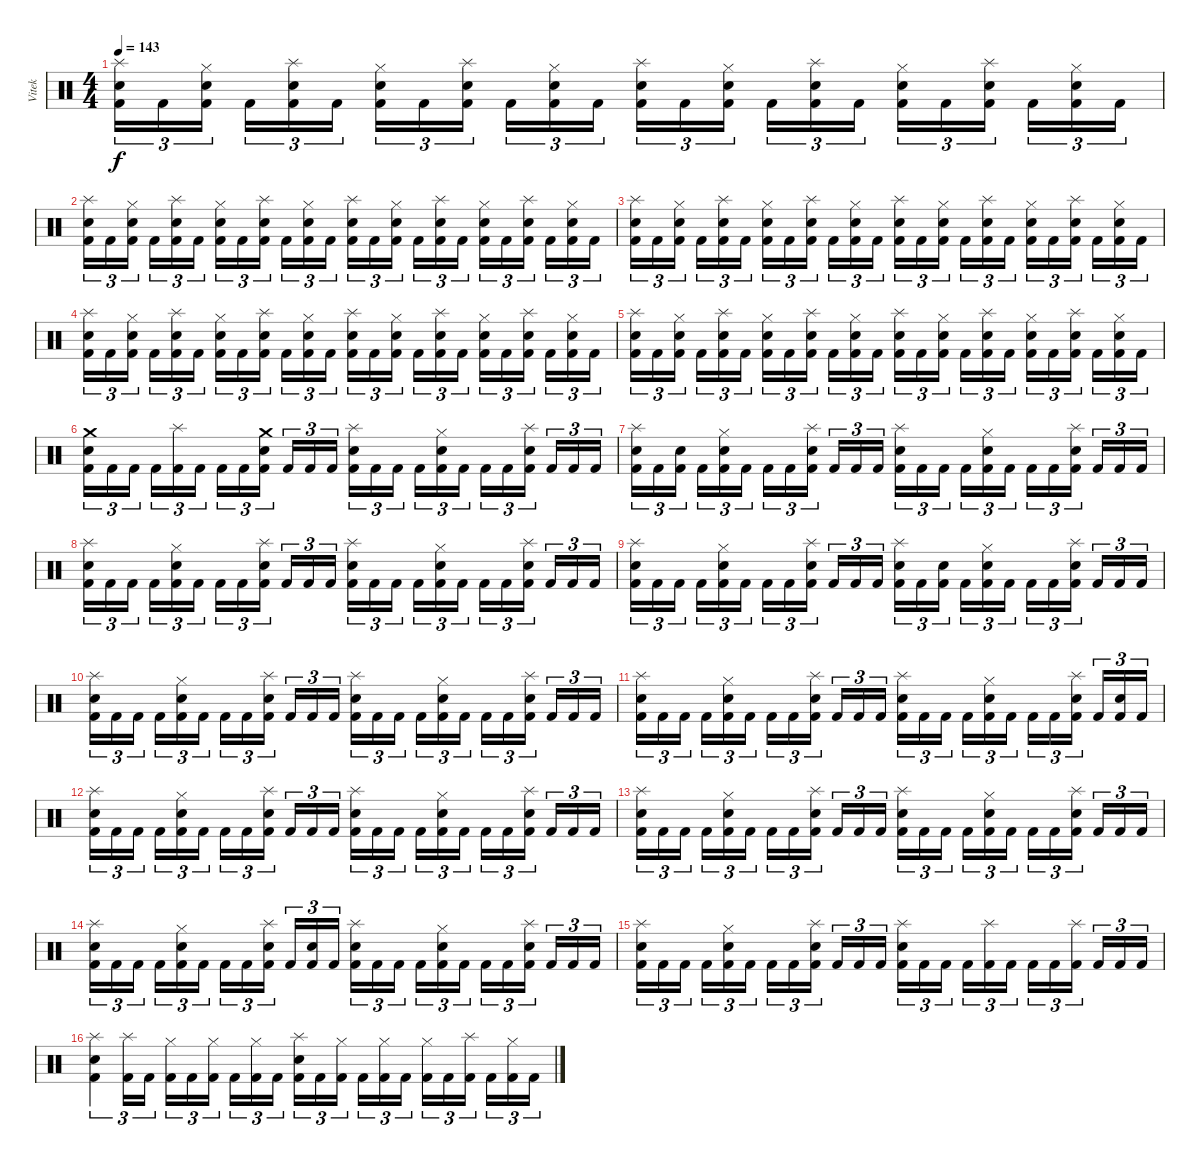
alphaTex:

\track ("Vitek" "Vitek") {instrument percussion}
\staff {score}
\articulation defaults
\ts (4 4)
\tempo 143
\clef neutral
\ks c
("Splash (hit)" "Electric Snare (hit)" "Kick (hit) 2").16{tu (3 2) dy f} "Kick (hit) 2".16{tu (3 2)} ("Hi-Hat (closed)" "Electric Snare (hit)" "Kick (hit) 2").16{tu (3 2) beam splitsecondary} "Kick (hit) 2".16{tu (3 2)} ("Splash (hit)" "Electric Snare (hit)" "Kick (hit) 2").16{tu (3 2)} "Kick (hit) 2".16{tu (3 2)} ("Hi-Hat (closed)" "Electric Snare (hit)" "Kick (hit) 2").16{tu (3 2)} "Kick (hit) 2".16{tu (3 2)} ("Splash (hit)" "Electric Snare (hit)" "Kick (hit) 2").16{tu (3 2) beam splitsecondary} "Kick (hit) 2".16{tu (3 2)} ("Hi-Hat (closed)" "Electric Snare (hit)" "Kick (hit) 2").16{tu (3 2)} "Kick (hit) 2".16{tu (3 2)} ("Splash (hit)" "Electric Snare (hit)" "Kick (hit) 2").16{tu (3 2)} "Kick (hit) 2".16{tu (3 2)} ("Hi-Hat (closed)" "Electric Snare (hit)" "Kick (hit) 2").16{tu (3 2) beam splitsecondary} "Kick (hit) 2".16{tu (3 2)} ("Splash (hit)" "Electric Snare (hit)" "Kick (hit) 2").16{tu (3 2)} "Kick (hit) 2".16{tu (3 2)} ("Hi-Hat (closed)" "Electric Snare (hit)" "Kick (hit) 2").16{tu (3 2)} "Kick (hit) 2".16{tu (3 2)} ("Splash (hit)" "Electric Snare (hit)" "Kick (hit) 2").16{tu (3 2) beam splitsecondary} "Kick (hit) 2".16{tu (3 2)} ("Hi-Hat (closed)" "Electric Snare (hit)" "Kick (hit) 2").16{tu (3 2)} "Kick (hit) 2".16{tu (3 2)} |
("Splash (hit)" "Electric Snare (hit)" "Kick (hit) 2").16{tu (3 2)} "Kick (hit) 2".16{tu (3 2)} ("Hi-Hat (closed)" "Electric Snare (hit)" "Kick (hit) 2").16{tu (3 2) beam splitsecondary} "Kick (hit) 2".16{tu (3 2)} ("Splash (hit)" "Electric Snare (hit)" "Kick (hit) 2").16{tu (3 2)} "Kick (hit) 2".16{tu (3 2)} ("Hi-Hat (closed)" "Electric Snare (hit)" "Kick (hit) 2").16{tu (3 2)} "Kick (hit) 2".16{tu (3 2)} ("Splash (hit)" "Electric Snare (hit)" "Kick (hit) 2").16{tu (3 2) beam splitsecondary} "Kick (hit) 2".16{tu (3 2)} ("Hi-Hat (closed)" "Electric Snare (hit)" "Kick (hit) 2").16{tu (3 2)} "Kick (hit) 2".16{tu (3 2)} ("Splash (hit)" "Electric Snare (hit)" "Kick (hit) 2").16{tu (3 2)} "Kick (hit) 2".16{tu (3 2)} ("Hi-Hat (closed)" "Electric Snare (hit)" "Kick (hit) 2").16{tu (3 2) beam splitsecondary} "Kick (hit) 2".16{tu (3 2)} ("Splash (hit)" "Electric Snare (hit)" "Kick (hit) 2").16{tu (3 2)} "Kick (hit) 2".16{tu (3 2)} ("Hi-Hat (closed)" "Electric Snare (hit)" "Kick (hit) 2").16{tu (3 2)} "Kick (hit) 2".16{tu (3 2)} ("Splash (hit)" "Electric Snare (hit)" "Kick (hit) 2").16{tu (3 2) beam splitsecondary} "Kick (hit) 2".16{tu (3 2)} ("Hi-Hat (closed)" "Electric Snare (hit)" "Kick (hit) 2").16{tu (3 2)} "Kick (hit) 2".16{tu (3 2)} |
("Splash (hit)" "Electric Snare (hit)" "Kick (hit) 2").16{tu (3 2)} "Kick (hit) 2".16{tu (3 2)} ("Hi-Hat (closed)" "Electric Snare (hit)" "Kick (hit) 2").16{tu (3 2) beam splitsecondary} "Kick (hit) 2".16{tu (3 2)} ("Splash (hit)" "Electric Snare (hit)" "Kick (hit) 2").16{tu (3 2)} "Kick (hit) 2".16{tu (3 2)} ("Hi-Hat (closed)" "Electric Snare (hit)" "Kick (hit) 2").16{tu (3 2)} "Kick (hit) 2".16{tu (3 2)} ("Splash (hit)" "Electric Snare (hit)" "Kick (hit) 2").16{tu (3 2) beam splitsecondary} "Kick (hit) 2".16{tu (3 2)} ("Hi-Hat (closed)" "Electric Snare (hit)" "Kick (hit) 2").16{tu (3 2)} "Kick (hit) 2".16{tu (3 2)} ("Splash (hit)" "Electric Snare (hit)" "Kick (hit) 2").16{tu (3 2)} "Kick (hit) 2".16{tu (3 2)} ("Hi-Hat (closed)" "Electric Snare (hit)" "Kick (hit) 2").16{tu (3 2) beam splitsecondary} "Kick (hit) 2".16{tu (3 2)} ("Splash (hit)" "Electric Snare (hit)" "Kick (hit) 2").16{tu (3 2)} "Kick (hit) 2".16{tu (3 2)} ("Hi-Hat (closed)" "Electric Snare (hit)" "Kick (hit) 2").16{tu (3 2)} "Kick (hit) 2".16{tu (3 2)} ("Splash (hit)" "Electric Snare (hit)" "Kick (hit) 2").16{tu (3 2) beam splitsecondary} "Kick (hit) 2".16{tu (3 2)} ("Hi-Hat (closed)" "Electric Snare (hit)" "Kick (hit) 2").16{tu (3 2)} "Kick (hit) 2".16{tu (3 2)} |
("Splash (hit)" "Electric Snare (hit)" "Kick (hit) 2").16{tu (3 2)} "Kick (hit) 2".16{tu (3 2)} ("Hi-Hat (closed)" "Electric Snare (hit)" "Kick (hit) 2").16{tu (3 2) beam splitsecondary} "Kick (hit) 2".16{tu (3 2)} ("Splash (hit)" "Electric Snare (hit)" "Kick (hit) 2").16{tu (3 2)} "Kick (hit) 2".16{tu (3 2)} ("Hi-Hat (closed)" "Electric Snare (hit)" "Kick (hit) 2").16{tu (3 2)} "Kick (hit) 2".16{tu (3 2)} ("Splash (hit)" "Electric Snare (hit)" "Kick (hit) 2").16{tu (3 2) beam splitsecondary} "Kick (hit) 2".16{tu (3 2)} ("Hi-Hat (closed)" "Electric Snare (hit)" "Kick (hit) 2").16{tu (3 2)} "Kick (hit) 2".16{tu (3 2)} ("Splash (hit)" "Electric Snare (hit)" "Kick (hit) 2").16{tu (3 2)} "Kick (hit) 2".16{tu (3 2)} ("Hi-Hat (closed)" "Electric Snare (hit)" "Kick (hit) 2").16{tu (3 2) beam splitsecondary} "Kick (hit) 2".16{tu (3 2)} ("Splash (hit)" "Electric Snare (hit)" "Kick (hit) 2").16{tu (3 2)} "Kick (hit) 2".16{tu (3 2)} ("Hi-Hat (closed)" "Electric Snare (hit)" "Kick (hit) 2").16{tu (3 2)} "Kick (hit) 2".16{tu (3 2)} ("Splash (hit)" "Electric Snare (hit)" "Kick (hit) 2").16{tu (3 2) beam splitsecondary} "Kick (hit) 2".16{tu (3 2)} ("Hi-Hat (closed)" "Electric Snare (hit)" "Kick (hit) 2").16{tu (3 2)} "Kick (hit) 2".16{tu (3 2)} |
("Splash (hit)" "Electric Snare (hit)" "Kick (hit) 2").16{tu (3 2)} "Kick (hit) 2".16{tu (3 2)} ("Hi-Hat (closed)" "Electric Snare (hit)" "Kick (hit) 2").16{tu (3 2) beam splitsecondary} "Kick (hit) 2".16{tu (3 2)} ("Splash (hit)" "Electric Snare (hit)" "Kick (hit) 2").16{tu (3 2)} "Kick (hit) 2".16{tu (3 2)} ("Hi-Hat (closed)" "Electric Snare (hit)" "Kick (hit) 2").16{tu (3 2)} "Kick (hit) 2".16{tu (3 2)} ("Splash (hit)" "Electric Snare (hit)" "Kick (hit) 2").16{tu (3 2) beam splitsecondary} "Kick (hit) 2".16{tu (3 2)} ("Hi-Hat (closed)" "Electric Snare (hit)" "Kick (hit) 2").16{tu (3 2)} "Kick (hit) 2".16{tu (3 2)} ("Splash (hit)" "Electric Snare (hit)" "Kick (hit) 2").16{tu (3 2)} "Kick (hit) 2".16{tu (3 2)} ("Hi-Hat (closed)" "Electric Snare (hit)" "Kick (hit) 2").16{tu (3 2) beam splitsecondary} "Kick (hit) 2".16{tu (3 2)} ("Splash (hit)" "Electric Snare (hit)" "Kick (hit) 2").16{tu (3 2)} "Kick (hit) 2".16{tu (3 2)} ("Hi-Hat (closed)" "Electric Snare (hit)" "Kick (hit) 2").16{tu (3 2)} "Kick (hit) 2".16{tu (3 2)} ("Splash (hit)" "Electric Snare (hit)" "Kick (hit) 2").16{tu (3 2) beam splitsecondary} "Kick (hit) 2".16{tu (3 2)} ("Hi-Hat (closed)" "Electric Snare (hit)" "Kick (hit) 2").16{tu (3 2)} "Kick (hit) 2".16{tu (3 2)} |
("Crash medium (hit)" "Electric Snare (hit)" "Kick (hit) 2").16{tu (3 2)} "Kick (hit) 2".16{tu (3 2)} "Kick (hit) 2".16{tu (3 2) beam splitsecondary} "Kick (hit) 2".16{tu (3 2)} ("Splash (hit)" "Kick (hit) 2").16{tu (3 2)} "Kick (hit) 2".16{tu (3 2)} "Kick (hit) 2".16{tu (3 2)} "Kick (hit) 2".16{tu (3 2)} ("Crash medium (hit)" "Electric Snare (hit)" "Kick (hit) 2").16{tu (3 2) beam splitsecondary} "Kick (hit) 2".16{tu (3 2)} "Kick (hit) 2".16{tu (3 2)} "Kick (hit) 2".16{tu (3 2)} ("Splash (hit)" "Electric Snare (hit)" "Kick (hit) 2").16{tu (3 2)} "Kick (hit) 2".16{tu (3 2)} "Kick (hit) 2".16{tu (3 2) beam splitsecondary} "Kick (hit) 2".16{tu (3 2)} ("Hi-Hat (closed)" "Electric Snare (hit)" "Kick (hit) 2").16{tu (3 2)} "Kick (hit) 2".16{tu (3 2)} "Kick (hit) 2".16{tu (3 2)} "Kick (hit) 2".16{tu (3 2)} ("Splash (hit)" "Electric Snare (hit)" "Kick (hit) 2").16{tu (3 2) beam splitsecondary} "Kick (hit) 2".16{tu (3 2)} "Kick (hit) 2".16{tu (3 2)} "Kick (hit) 2".16{tu (3 2)} |
("Splash (hit)" "Electric Snare (hit)" "Kick (hit) 2").16{tu (3 2)} "Kick (hit) 2".16{tu (3 2)} ("Electric Snare (hit)" "Kick (hit) 2").16{tu (3 2) beam splitsecondary} "Kick (hit) 2".16{tu (3 2)} ("Hi-Hat (closed)" "Electric Snare (hit)" "Kick (hit) 2").16{tu (3 2)} "Kick (hit) 2".16{tu (3 2)} "Kick (hit) 2".16{tu (3 2)} "Kick (hit) 2".16{tu (3 2)} ("Splash (hit)" "Electric Snare (hit)" "Kick (hit) 2").16{tu (3 2) beam splitsecondary} "Kick (hit) 2".16{tu (3 2)} "Kick (hit) 2".16{tu (3 2)} "Kick (hit) 2".16{tu (3 2)} ("Splash (hit)" "Electric Snare (hit)" "Kick (hit) 2").16{tu (3 2)} "Kick (hit) 2".16{tu (3 2)} "Kick (hit) 2".16{tu (3 2) beam splitsecondary} "Kick (hit) 2".16{tu (3 2)} ("Hi-Hat (closed)" "Electric Snare (hit)" "Kick (hit) 2").16{tu (3 2)} "Kick (hit) 2".16{tu (3 2)} "Kick (hit) 2".16{tu (3 2)} "Kick (hit) 2".16{tu (3 2)} ("Splash (hit)" "Electric Snare (hit)" "Kick (hit) 2").16{tu (3 2) beam splitsecondary} "Kick (hit) 2".16{tu (3 2)} "Kick (hit) 2".16{tu (3 2)} "Kick (hit) 2".16{tu (3 2)} |
("Splash (hit)" "Electric Snare (hit)" "Kick (hit) 2").16{tu (3 2)} "Kick (hit) 2".16{tu (3 2)} "Kick (hit) 2".16{tu (3 2) beam splitsecondary} "Kick (hit) 2".16{tu (3 2)} ("Hi-Hat (closed)" "Electric Snare (hit)" "Kick (hit) 2").16{tu (3 2)} "Kick (hit) 2".16{tu (3 2)} "Kick (hit) 2".16{tu (3 2)} "Kick (hit) 2".16{tu (3 2)} ("Splash (hit)" "Electric Snare (hit)" "Kick (hit) 2").16{tu (3 2) beam splitsecondary} "Kick (hit) 2".16{tu (3 2)} "Kick (hit) 2".16{tu (3 2)} "Kick (hit) 2".16{tu (3 2)} ("Splash (hit)" "Electric Snare (hit)" "Kick (hit) 2").16{tu (3 2)} "Kick (hit) 2".16{tu (3 2)} "Kick (hit) 2".16{tu (3 2) beam splitsecondary} "Kick (hit) 2".16{tu (3 2)} ("Hi-Hat (closed)" "Electric Snare (hit)" "Kick (hit) 2").16{tu (3 2)} "Kick (hit) 2".16{tu (3 2)} "Kick (hit) 2".16{tu (3 2)} "Kick (hit) 2".16{tu (3 2)} ("Splash (hit)" "Electric Snare (hit)" "Kick (hit) 2").16{tu (3 2) beam splitsecondary} "Kick (hit) 2".16{tu (3 2)} "Kick (hit) 2".16{tu (3 2)} "Kick (hit) 2".16{tu (3 2)} |
("Splash (hit)" "Electric Snare (hit)" "Kick (hit) 2").16{tu (3 2)} "Kick (hit) 2".16{tu (3 2)} "Kick (hit) 2".16{tu (3 2) beam splitsecondary} "Kick (hit) 2".16{tu (3 2)} ("Hi-Hat (closed)" "Electric Snare (hit)" "Kick (hit) 2").16{tu (3 2)} "Kick (hit) 2".16{tu (3 2)} "Kick (hit) 2".16{tu (3 2)} "Kick (hit) 2".16{tu (3 2)} ("Splash (hit)" "Electric Snare (hit)" "Kick (hit) 2").16{tu (3 2) beam splitsecondary} "Kick (hit) 2".16{tu (3 2)} "Kick (hit) 2".16{tu (3 2)} "Kick (hit) 2".16{tu (3 2)} ("Splash (hit)" "Electric Snare (hit)" "Kick (hit) 2").16{tu (3 2)} "Kick (hit) 2".16{tu (3 2)} ("Electric Snare (hit)" "Kick (hit) 2").16{tu (3 2) beam splitsecondary} "Kick (hit) 2".16{tu (3 2)} ("Hi-Hat (closed)" "Electric Snare (hit)" "Kick (hit) 2").16{tu (3 2)} "Kick (hit) 2".16{tu (3 2)} "Kick (hit) 2".16{tu (3 2)} "Kick (hit) 2".16{tu (3 2)} ("Splash (hit)" "Electric Snare (hit)" "Kick (hit) 2").16{tu (3 2) beam splitsecondary} "Kick (hit) 2".16{tu (3 2)} "Kick (hit) 2".16{tu (3 2)} "Kick (hit) 2".16{tu (3 2)} |
("Splash (hit)" "Electric Snare (hit)" "Kick (hit) 2").16{tu (3 2)} "Kick (hit) 2".16{tu (3 2)} "Kick (hit) 2".16{tu (3 2) beam splitsecondary} "Kick (hit) 2".16{tu (3 2)} ("Hi-Hat (closed)" "Electric Snare (hit)" "Kick (hit) 2").16{tu (3 2)} "Kick (hit) 2".16{tu (3 2)} "Kick (hit) 2".16{tu (3 2)} "Kick (hit) 2".16{tu (3 2)} ("Splash (hit)" "Electric Snare (hit)" "Kick (hit) 2").16{tu (3 2) beam splitsecondary} "Kick (hit) 2".16{tu (3 2)} "Kick (hit) 2".16{tu (3 2)} "Kick (hit) 2".16{tu (3 2)} ("Splash (hit)" "Electric Snare (hit)" "Kick (hit) 2").16{tu (3 2)} "Kick (hit) 2".16{tu (3 2)} "Kick (hit) 2".16{tu (3 2) beam splitsecondary} "Kick (hit) 2".16{tu (3 2)} ("Hi-Hat (closed)" "Electric Snare (hit)" "Kick (hit) 2").16{tu (3 2)} "Kick (hit) 2".16{tu (3 2)} "Kick (hit) 2".16{tu (3 2)} "Kick (hit) 2".16{tu (3 2)} ("Splash (hit)" "Electric Snare (hit)" "Kick (hit) 2").16{tu (3 2) beam splitsecondary} "Kick (hit) 2".16{tu (3 2)} "Kick (hit) 2".16{tu (3 2)} "Kick (hit) 2".16{tu (3 2)} |
("Splash (hit)" "Electric Snare (hit)" "Kick (hit) 2").16{tu (3 2)} "Kick (hit) 2".16{tu (3 2)} "Kick (hit) 2".16{tu (3 2) beam splitsecondary} "Kick (hit) 2".16{tu (3 2)} ("Hi-Hat (closed)" "Electric Snare (hit)" "Kick (hit) 2").16{tu (3 2)} "Kick (hit) 2".16{tu (3 2)} "Kick (hit) 2".16{tu (3 2)} "Kick (hit) 2".16{tu (3 2)} ("Splash (hit)" "Electric Snare (hit)" "Kick (hit) 2").16{tu (3 2) beam splitsecondary} "Kick (hit) 2".16{tu (3 2)} "Kick (hit) 2".16{tu (3 2)} "Kick (hit) 2".16{tu (3 2)} ("Splash (hit)" "Electric Snare (hit)" "Kick (hit) 2").16{tu (3 2)} "Kick (hit) 2".16{tu (3 2)} "Kick (hit) 2".16{tu (3 2) beam splitsecondary} "Kick (hit) 2".16{tu (3 2)} ("Hi-Hat (closed)" "Electric Snare (hit)" "Kick (hit) 2").16{tu (3 2)} "Kick (hit) 2".16{tu (3 2)} "Kick (hit) 2".16{tu (3 2)} "Kick (hit) 2".16{tu (3 2)} ("Splash (hit)" "Electric Snare (hit)" "Kick (hit) 2").16{tu (3 2) beam splitsecondary} "Kick (hit) 2".16{tu (3 2)} ("Electric Snare (hit)" "Kick (hit) 2").16{tu (3 2)} "Kick (hit) 2".16{tu (3 2)} |
("Splash (hit)" "Electric Snare (hit)" "Kick (hit) 2").16{tu (3 2)} "Kick (hit) 2".16{tu (3 2)} "Kick (hit) 2".16{tu (3 2) beam splitsecondary} "Kick (hit) 2".16{tu (3 2)} ("Hi-Hat (closed)" "Electric Snare (hit)" "Kick (hit) 2").16{tu (3 2)} "Kick (hit) 2".16{tu (3 2)} "Kick (hit) 2".16{tu (3 2)} "Kick (hit) 2".16{tu (3 2)} ("Splash (hit)" "Electric Snare (hit)" "Kick (hit) 2").16{tu (3 2) beam splitsecondary} "Kick (hit) 2".16{tu (3 2)} "Kick (hit) 2".16{tu (3 2)} "Kick (hit) 2".16{tu (3 2)} ("Splash (hit)" "Electric Snare (hit)" "Kick (hit) 2").16{tu (3 2)} "Kick (hit) 2".16{tu (3 2)} "Kick (hit) 2".16{tu (3 2) beam splitsecondary} "Kick (hit) 2".16{tu (3 2)} ("Hi-Hat (closed)" "Electric Snare (hit)" "Kick (hit) 2").16{tu (3 2)} "Kick (hit) 2".16{tu (3 2)} "Kick (hit) 2".16{tu (3 2)} "Kick (hit) 2".16{tu (3 2)} ("Splash (hit)" "Electric Snare (hit)" "Kick (hit) 2").16{tu (3 2) beam splitsecondary} "Kick (hit) 2".16{tu (3 2)} "Kick (hit) 2".16{tu (3 2)} "Kick (hit) 2".16{tu (3 2)} |
("Splash (hit)" "Electric Snare (hit)" "Kick (hit) 2").16{tu (3 2)} "Kick (hit) 2".16{tu (3 2)} "Kick (hit) 2".16{tu (3 2) beam splitsecondary} "Kick (hit) 2".16{tu (3 2)} ("Hi-Hat (closed)" "Electric Snare (hit)" "Kick (hit) 2").16{tu (3 2)} "Kick (hit) 2".16{tu (3 2)} "Kick (hit) 2".16{tu (3 2)} "Kick (hit) 2".16{tu (3 2)} ("Splash (hit)" "Electric Snare (hit)" "Kick (hit) 2").16{tu (3 2) beam splitsecondary} "Kick (hit) 2".16{tu (3 2)} "Kick (hit) 2".16{tu (3 2)} "Kick (hit) 2".16{tu (3 2)} ("Splash (hit)" "Electric Snare (hit)" "Kick (hit) 2").16{tu (3 2)} "Kick (hit) 2".16{tu (3 2)} "Kick (hit) 2".16{tu (3 2) beam splitsecondary} "Kick (hit) 2".16{tu (3 2)} ("Hi-Hat (closed)" "Electric Snare (hit)" "Kick (hit) 2").16{tu (3 2)} "Kick (hit) 2".16{tu (3 2)} "Kick (hit) 2".16{tu (3 2)} "Kick (hit) 2".16{tu (3 2)} ("Splash (hit)" "Electric Snare (hit)" "Kick (hit) 2").16{tu (3 2) beam splitsecondary} "Kick (hit) 2".16{tu (3 2)} "Kick (hit) 2".16{tu (3 2)} "Kick (hit) 2".16{tu (3 2)} |
("Splash (hit)" "Electric Snare (hit)" "Kick (hit) 2").16{tu (3 2)} "Kick (hit) 2".16{tu (3 2)} "Kick (hit) 2".16{tu (3 2) beam splitsecondary} "Kick (hit) 2".16{tu (3 2)} ("Hi-Hat (closed)" "Electric Snare (hit)" "Kick (hit) 2").16{tu (3 2)} "Kick (hit) 2".16{tu (3 2)} "Kick (hit) 2".16{tu (3 2)} "Kick (hit) 2".16{tu (3 2)} ("Splash (hit)" "Electric Snare (hit)" "Kick (hit) 2").16{tu (3 2) beam splitsecondary} "Kick (hit) 2".16{tu (3 2)} ("Electric Snare (hit)" "Kick (hit) 2").16{tu (3 2)} "Kick (hit) 2".16{tu (3 2)} ("Splash (hit)" "Electric Snare (hit)" "Kick (hit) 2").16{tu (3 2)} "Kick (hit) 2".16{tu (3 2)} "Kick (hit) 2".16{tu (3 2) beam splitsecondary} "Kick (hit) 2".16{tu (3 2)} ("Hi-Hat (closed)" "Electric Snare (hit)" "Kick (hit) 2").16{tu (3 2)} "Kick (hit) 2".16{tu (3 2)} "Kick (hit) 2".16{tu (3 2)} "Kick (hit) 2".16{tu (3 2)} ("Splash (hit)" "Electric Snare (hit)" "Kick (hit) 2").16{tu (3 2) beam splitsecondary} "Kick (hit) 2".16{tu (3 2)} "Kick (hit) 2".16{tu (3 2)} "Kick (hit) 2".16{tu (3 2)} |
("Splash (hit)" "Electric Snare (hit)" "Kick (hit) 2").16{tu (3 2)} "Kick (hit) 2".16{tu (3 2)} "Kick (hit) 2".16{tu (3 2) beam splitsecondary} "Kick (hit) 2".16{tu (3 2)} ("Hi-Hat (closed)" "Electric Snare (hit)" "Kick (hit) 2").16{tu (3 2)} "Kick (hit) 2".16{tu (3 2)} "Kick (hit) 2".16{tu (3 2)} "Kick (hit) 2".16{tu (3 2)} ("Splash (hit)" "Electric Snare (hit)" "Kick (hit) 2").16{tu (3 2) beam splitsecondary} "Kick (hit) 2".16{tu (3 2)} "Kick (hit) 2".16{tu (3 2)} "Kick (hit) 2".16{tu (3 2)} ("Splash (hit)" "Electric Snare (hit)" "Kick (hit) 2").16{tu (3 2)} "Kick (hit) 2".16{tu (3 2)} "Kick (hit) 2".16{tu (3 2) beam splitsecondary} "Kick (hit) 2".16{tu (3 2)} ("Splash (hit)" "Kick (hit) 2").16{tu (3 2)} "Kick (hit) 2".16{tu (3 2)} "Kick (hit) 2".16{tu (3 2)} "Kick (hit) 2".16{tu (3 2)} ("Splash (hit)" "Kick (hit) 2").16{tu (3 2) beam splitsecondary} "Kick (hit) 2".16{tu (3 2)} "Kick (hit) 2".16{tu (3 2)} "Kick (hit) 2".16{tu (3 2)} |
("Splash (hit)" "Electric Snare (hit)" "Kick (hit) 2").4{tu (3 2)} ("Splash (hit)" "Kick (hit) 2").16{tu (3 2)} "Kick (hit) 2".16{tu (3 2)} ("Hi-Hat (closed)" "Kick (hit) 2").16{tu (3 2)} "Kick (hit) 2".16{tu (3 2)} ("Hi-Hat (closed)" "Kick (hit) 2").16{tu (3 2) beam splitsecondary} "Kick (hit) 2".16{tu (3 2)} ("Hi-Hat (closed)" "Kick (hit) 2").16{tu (3 2)} "Kick (hit) 2".16{tu (3 2)} ("Splash (hit)" "Electric Snare (hit)" "Kick (hit) 2").16{tu (3 2)} "Kick (hit) 2".16{tu (3 2)} ("Hi-Hat (closed)" "Kick (hit) 2").16{tu (3 2) beam splitsecondary} "Kick (hit) 2".16{tu (3 2)} ("Hi-Hat (closed)" "Kick (hit) 2").16{tu (3 2)} "Kick (hit) 2".16{tu (3 2)} ("Hi-Hat (closed)" "Kick (hit) 2").16{tu (3 2)} "Kick (hit) 2".16{tu (3 2)} ("Splash (hit)" "Kick (hit) 2").16{tu (3 2) beam splitsecondary} "Kick (hit) 2".16{tu (3 2)} ("Hi-Hat (closed)" "Kick (hit) 2").16{tu (3 2)} "Kick (hit) 2".16{tu (3 2)}
